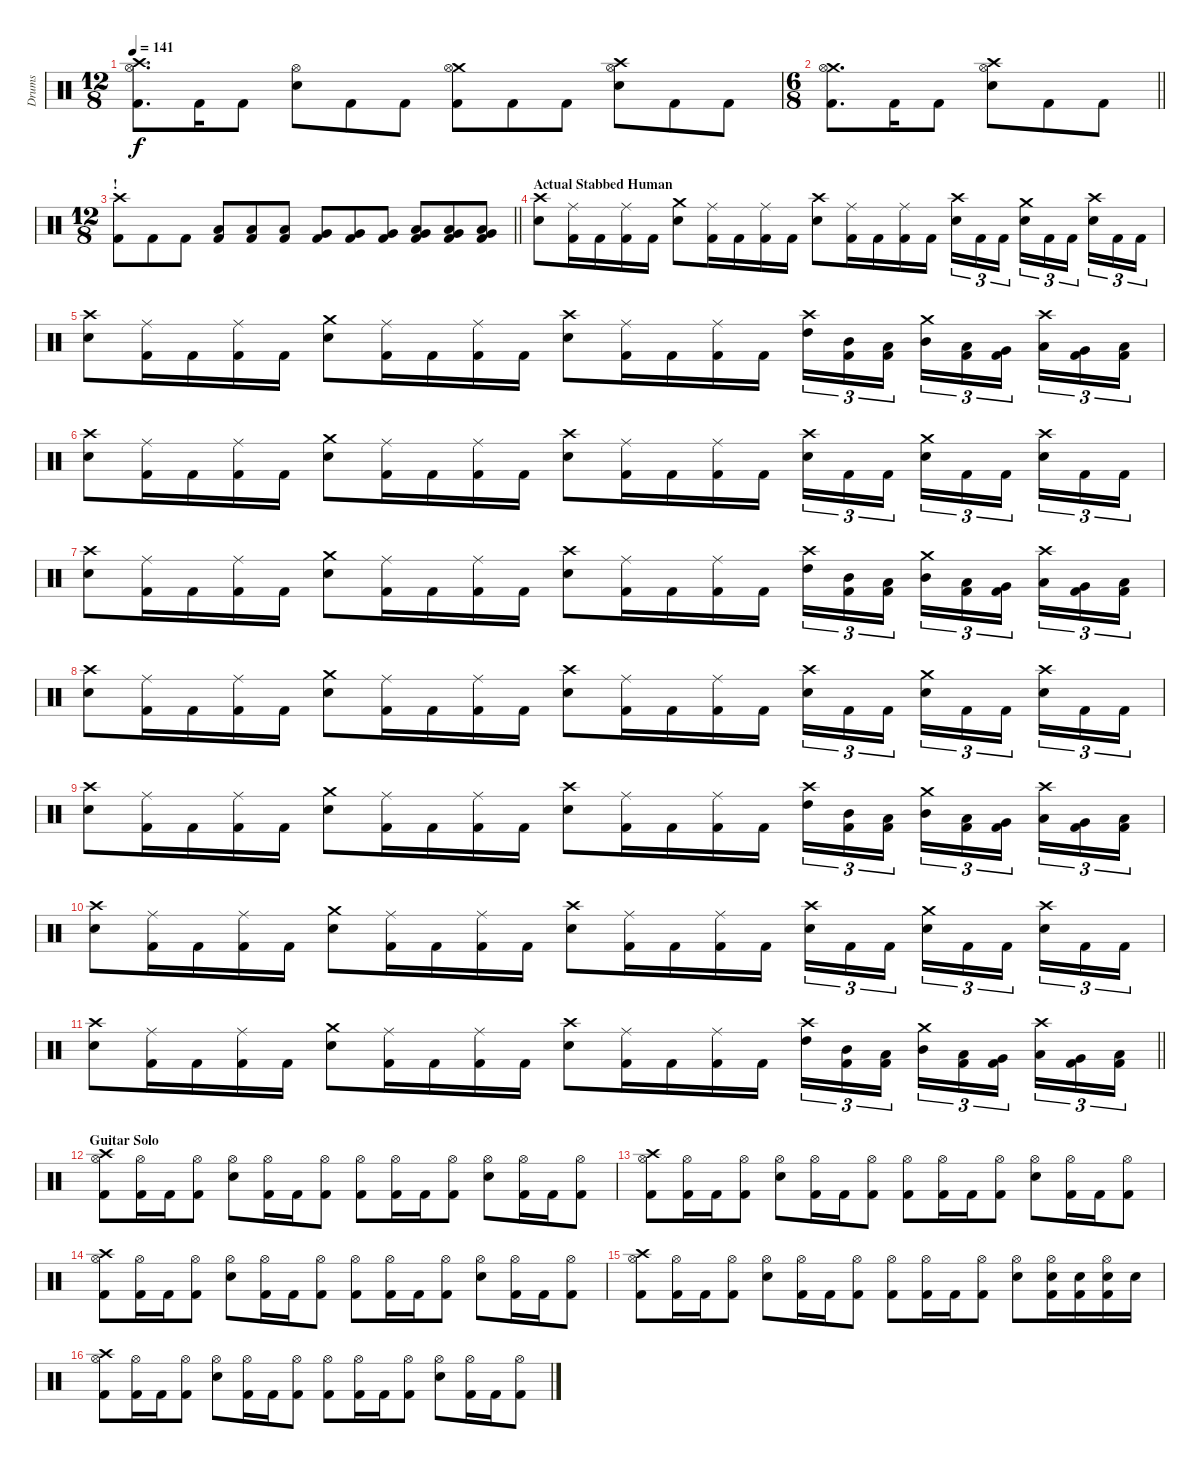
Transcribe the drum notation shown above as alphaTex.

\track ("Drums" "Drums") {instrument percussion}
\staff {score}
\articulation defaults
\ts (12 8)
\tempo 141
\clef neutral
\ks c
("Crash high (hit)" "Hi-Hat (open)" "Kick (hit) 2").8{d dy f} "Kick (hit) 2".16 "Kick (hit) 2".8 ("Hi-Hat (open)" "Snare (hit) 2").8 "Kick (hit) 2".8 "Kick (hit) 2".8 ("Crash medium (hit)" "Hi-Hat (open)" "Kick (hit) 2").8 "Kick (hit) 2".8 "Kick (hit) 2".8 ("Crash high (hit)" "Hi-Hat (open)" "Snare (hit) 2").8 "Kick (hit) 2".8 "Kick (hit) 2".8 |
\ts (6 8)
\barLineRight lightlight
("Crash medium (hit)" "Hi-Hat (open)" "Kick (hit) 2").8{d} "Kick (hit) 2".16 "Kick (hit) 2".8 ("Crash high (hit)" "Hi-Hat (open)" "Snare (hit) 2").8 "Kick (hit) 2".8 "Kick (hit) 2".8 |
\ts (12 8)
\section ("" "!")
\barLineRight lightlight
("Crash high (hit)" "Kick (hit) 2").8 "Kick (hit) 2".8 "Kick (hit) 2".8 ("Low Floor Tom (hit)" "Kick (hit) 2").8 ("Low Floor Tom (hit)" "Kick (hit) 2").8 ("Low Floor Tom (hit)" "Kick (hit) 2").8 ("Very Low Tom (hit)" "Kick (hit) 2").8 ("Very Low Tom (hit)" "Kick (hit) 2").8 ("Very Low Tom (hit)" "Kick (hit) 2").8 ("Low Tom (hit)" "Very Low Tom (hit)" "Kick (hit) 2").8 ("Low Tom (hit)" "Very Low Tom (hit)" "Kick (hit) 2").8 ("Low Tom (hit)" "Very Low Tom (hit)" "Kick (hit) 2").8 |
\section ("" "Actual Stabbed Human")
("Crash high (hit)" "Snare (hit) 2").8 ("Ride (middle)" "Kick (hit) 2").16 "Kick (hit) 2".16 ("Ride (middle)" "Kick (hit) 2").16 "Kick (hit) 2".16 ("Crash medium (hit)" "Snare (hit) 2").8 ("Ride (middle)" "Kick (hit) 2").16 "Kick (hit) 2".16 ("Ride (middle)" "Kick (hit) 2").16 "Kick (hit) 2".16 ("Crash high (hit)" "Snare (hit) 2").8 ("Ride (middle)" "Kick (hit) 2").16 "Kick (hit) 2".16 ("Ride (middle)" "Kick (hit) 2").16 "Kick (hit) 2".16 ("Crash high (hit)" "Snare (hit) 2").16{tu (3 2)} "Kick (hit) 2".16{tu (3 2)} "Kick (hit) 2".16{tu (3 2) beam splitsecondary} ("Crash medium (hit)" "Snare (hit) 2").16{tu (3 2)} "Kick (hit) 2".16{tu (3 2)} "Kick (hit) 2".16{tu (3 2) beam splitsecondary} ("Crash high (hit)" "Snare (hit) 2").16{tu (3 2)} "Kick (hit) 2".16{tu (3 2)} "Kick (hit) 2".16{tu (3 2)} |
("Crash high (hit)" "Snare (hit) 2").8 ("Ride (middle)" "Kick (hit) 2").16 "Kick (hit) 2".16 ("Ride (middle)" "Kick (hit) 2").16 "Kick (hit) 2".16 ("Crash medium (hit)" "Snare (hit) 2").8 ("Ride (middle)" "Kick (hit) 2").16 "Kick (hit) 2".16 ("Ride (middle)" "Kick (hit) 2").16 "Kick (hit) 2".16 ("Crash high (hit)" "Snare (hit) 2").8 ("Ride (middle)" "Kick (hit) 2").16 "Kick (hit) 2".16 ("Ride (middle)" "Kick (hit) 2").16 "Kick (hit) 2".16 ("Crash high (hit)" "High Tom (hit)").16{tu (3 2)} ("Mid Tom (hit)" "Kick (hit) 2").16{tu (3 2)} ("Low Tom (hit)" "Kick (hit) 2").16{tu (3 2) beam splitsecondary} ("Crash medium (hit)" "Mid Tom (hit)").16{tu (3 2)} ("Low Tom (hit)" "Kick (hit) 2").16{tu (3 2)} ("Very Low Tom (hit)" "Kick (hit) 2").16{tu (3 2) beam splitsecondary} ("Crash high (hit)" "Low Tom (hit)").16{tu (3 2)} ("Very Low Tom (hit)" "Kick (hit) 2").16{tu (3 2)} ("Low Floor Tom (hit)" "Kick (hit) 2").16{tu (3 2)} |
("Crash high (hit)" "Snare (hit) 2").8 ("Ride (middle)" "Kick (hit) 2").16 "Kick (hit) 2".16 ("Ride (middle)" "Kick (hit) 2").16 "Kick (hit) 2".16 ("Crash medium (hit)" "Snare (hit) 2").8 ("Ride (middle)" "Kick (hit) 2").16 "Kick (hit) 2".16 ("Ride (middle)" "Kick (hit) 2").16 "Kick (hit) 2".16 ("Crash high (hit)" "Snare (hit) 2").8 ("Ride (middle)" "Kick (hit) 2").16 "Kick (hit) 2".16 ("Ride (middle)" "Kick (hit) 2").16 "Kick (hit) 2".16 ("Crash high (hit)" "Snare (hit) 2").16{tu (3 2)} "Kick (hit) 2".16{tu (3 2)} "Kick (hit) 2".16{tu (3 2) beam splitsecondary} ("Crash medium (hit)" "Snare (hit) 2").16{tu (3 2)} "Kick (hit) 2".16{tu (3 2)} "Kick (hit) 2".16{tu (3 2) beam splitsecondary} ("Crash high (hit)" "Snare (hit) 2").16{tu (3 2)} "Kick (hit) 2".16{tu (3 2)} "Kick (hit) 2".16{tu (3 2)} |
("Crash high (hit)" "Snare (hit) 2").8 ("Ride (middle)" "Kick (hit) 2").16 "Kick (hit) 2".16 ("Ride (middle)" "Kick (hit) 2").16 "Kick (hit) 2".16 ("Crash medium (hit)" "Snare (hit) 2").8 ("Ride (middle)" "Kick (hit) 2").16 "Kick (hit) 2".16 ("Ride (middle)" "Kick (hit) 2").16 "Kick (hit) 2".16 ("Crash high (hit)" "Snare (hit) 2").8 ("Ride (middle)" "Kick (hit) 2").16 "Kick (hit) 2".16 ("Ride (middle)" "Kick (hit) 2").16 "Kick (hit) 2".16 ("Crash high (hit)" "High Tom (hit)").16{tu (3 2)} ("Mid Tom (hit)" "Kick (hit) 2").16{tu (3 2)} ("Low Tom (hit)" "Kick (hit) 2").16{tu (3 2) beam splitsecondary} ("Crash medium (hit)" "Mid Tom (hit)").16{tu (3 2)} ("Low Tom (hit)" "Kick (hit) 2").16{tu (3 2)} ("Very Low Tom (hit)" "Kick (hit) 2").16{tu (3 2) beam splitsecondary} ("Crash high (hit)" "Low Tom (hit)").16{tu (3 2)} ("Very Low Tom (hit)" "Kick (hit) 2").16{tu (3 2)} ("Low Floor Tom (hit)" "Kick (hit) 2").16{tu (3 2)} |
("Crash high (hit)" "Snare (hit) 2").8 ("Ride (middle)" "Kick (hit) 2").16 "Kick (hit) 2".16 ("Ride (middle)" "Kick (hit) 2").16 "Kick (hit) 2".16 ("Crash medium (hit)" "Snare (hit) 2").8 ("Ride (middle)" "Kick (hit) 2").16 "Kick (hit) 2".16 ("Ride (middle)" "Kick (hit) 2").16 "Kick (hit) 2".16 ("Crash high (hit)" "Snare (hit) 2").8 ("Ride (middle)" "Kick (hit) 2").16 "Kick (hit) 2".16 ("Ride (middle)" "Kick (hit) 2").16 "Kick (hit) 2".16 ("Crash high (hit)" "Snare (hit) 2").16{tu (3 2)} "Kick (hit) 2".16{tu (3 2)} "Kick (hit) 2".16{tu (3 2) beam splitsecondary} ("Crash medium (hit)" "Snare (hit) 2").16{tu (3 2)} "Kick (hit) 2".16{tu (3 2)} "Kick (hit) 2".16{tu (3 2) beam splitsecondary} ("Crash high (hit)" "Snare (hit) 2").16{tu (3 2)} "Kick (hit) 2".16{tu (3 2)} "Kick (hit) 2".16{tu (3 2)} |
("Crash high (hit)" "Snare (hit) 2").8 ("Ride (middle)" "Kick (hit) 2").16 "Kick (hit) 2".16 ("Ride (middle)" "Kick (hit) 2").16 "Kick (hit) 2".16 ("Crash medium (hit)" "Snare (hit) 2").8 ("Ride (middle)" "Kick (hit) 2").16 "Kick (hit) 2".16 ("Ride (middle)" "Kick (hit) 2").16 "Kick (hit) 2".16 ("Crash high (hit)" "Snare (hit) 2").8 ("Ride (middle)" "Kick (hit) 2").16 "Kick (hit) 2".16 ("Ride (middle)" "Kick (hit) 2").16 "Kick (hit) 2".16 ("Crash high (hit)" "High Tom (hit)").16{tu (3 2)} ("Mid Tom (hit)" "Kick (hit) 2").16{tu (3 2)} ("Low Tom (hit)" "Kick (hit) 2").16{tu (3 2) beam splitsecondary} ("Crash medium (hit)" "Mid Tom (hit)").16{tu (3 2)} ("Low Tom (hit)" "Kick (hit) 2").16{tu (3 2)} ("Very Low Tom (hit)" "Kick (hit) 2").16{tu (3 2) beam splitsecondary} ("Crash high (hit)" "Low Tom (hit)").16{tu (3 2)} ("Very Low Tom (hit)" "Kick (hit) 2").16{tu (3 2)} ("Low Floor Tom (hit)" "Kick (hit) 2").16{tu (3 2)} |
("Crash high (hit)" "Snare (hit) 2").8 ("Ride (middle)" "Kick (hit) 2").16 "Kick (hit) 2".16 ("Ride (middle)" "Kick (hit) 2").16 "Kick (hit) 2".16 ("Crash medium (hit)" "Snare (hit) 2").8 ("Ride (middle)" "Kick (hit) 2").16 "Kick (hit) 2".16 ("Ride (middle)" "Kick (hit) 2").16 "Kick (hit) 2".16 ("Crash high (hit)" "Snare (hit) 2").8 ("Ride (middle)" "Kick (hit) 2").16 "Kick (hit) 2".16 ("Ride (middle)" "Kick (hit) 2").16 "Kick (hit) 2".16 ("Crash high (hit)" "Snare (hit) 2").16{tu (3 2)} "Kick (hit) 2".16{tu (3 2)} "Kick (hit) 2".16{tu (3 2) beam splitsecondary} ("Crash medium (hit)" "Snare (hit) 2").16{tu (3 2)} "Kick (hit) 2".16{tu (3 2)} "Kick (hit) 2".16{tu (3 2) beam splitsecondary} ("Crash high (hit)" "Snare (hit) 2").16{tu (3 2)} "Kick (hit) 2".16{tu (3 2)} "Kick (hit) 2".16{tu (3 2)} |
\barLineRight lightlight
("Crash high (hit)" "Snare (hit) 2").8 ("Ride (middle)" "Kick (hit) 2").16 "Kick (hit) 2".16 ("Ride (middle)" "Kick (hit) 2").16 "Kick (hit) 2".16 ("Crash medium (hit)" "Snare (hit) 2").8 ("Ride (middle)" "Kick (hit) 2").16 "Kick (hit) 2".16 ("Ride (middle)" "Kick (hit) 2").16 "Kick (hit) 2".16 ("Crash high (hit)" "Snare (hit) 2").8 ("Ride (middle)" "Kick (hit) 2").16 "Kick (hit) 2".16 ("Ride (middle)" "Kick (hit) 2").16 "Kick (hit) 2".16 ("Crash high (hit)" "High Tom (hit)").16{tu (3 2)} ("Mid Tom (hit)" "Kick (hit) 2").16{tu (3 2)} ("Low Tom (hit)" "Kick (hit) 2").16{tu (3 2) beam splitsecondary} ("Crash medium (hit)" "Mid Tom (hit)").16{tu (3 2)} ("Low Tom (hit)" "Kick (hit) 2").16{tu (3 2)} ("Very Low Tom (hit)" "Kick (hit) 2").16{tu (3 2) beam splitsecondary} ("Crash high (hit)" "Low Tom (hit)").16{tu (3 2)} ("Very Low Tom (hit)" "Kick (hit) 2").16{tu (3 2)} ("Low Floor Tom (hit)" "Kick (hit) 2").16{tu (3 2)} |
\section ("" "Guitar Solo ")
("Crash high (hit)" "Hi-Hat (open)" "Kick (hit) 2").8 ("Hi-Hat (open)" "Kick (hit) 2").16 "Kick (hit) 2".16 ("Hi-Hat (open)" "Kick (hit) 2").8 ("Hi-Hat (open)" "Snare (hit) 2").8 ("Hi-Hat (open)" "Kick (hit) 2").16 "Kick (hit) 2".16 ("Hi-Hat (open)" "Kick (hit) 2").8 ("Hi-Hat (open)" "Kick (hit) 2").8 ("Hi-Hat (open)" "Kick (hit) 2").16 "Kick (hit) 2".16 ("Hi-Hat (open)" "Kick (hit) 2").8 ("Hi-Hat (open)" "Snare (hit) 2").8 ("Hi-Hat (open)" "Kick (hit) 2").16 "Kick (hit) 2".16 ("Hi-Hat (open)" "Kick (hit) 2").8 |
("Crash high (hit)" "Hi-Hat (open)" "Kick (hit) 2").8 ("Hi-Hat (open)" "Kick (hit) 2").16 "Kick (hit) 2".16 ("Hi-Hat (open)" "Kick (hit) 2").8 ("Hi-Hat (open)" "Snare (hit) 2").8 ("Hi-Hat (open)" "Kick (hit) 2").16 "Kick (hit) 2".16 ("Hi-Hat (open)" "Kick (hit) 2").8 ("Hi-Hat (open)" "Kick (hit) 2").8 ("Hi-Hat (open)" "Kick (hit) 2").16 "Kick (hit) 2".16 ("Hi-Hat (open)" "Kick (hit) 2").8 ("Hi-Hat (open)" "Snare (hit) 2").8 ("Hi-Hat (open)" "Kick (hit) 2").16 "Kick (hit) 2".16 ("Hi-Hat (open)" "Kick (hit) 2").8 |
("Crash high (hit)" "Hi-Hat (open)" "Kick (hit) 2").8 ("Hi-Hat (open)" "Kick (hit) 2").16 "Kick (hit) 2".16 ("Hi-Hat (open)" "Kick (hit) 2").8 ("Hi-Hat (open)" "Snare (hit) 2").8 ("Hi-Hat (open)" "Kick (hit) 2").16 "Kick (hit) 2".16 ("Hi-Hat (open)" "Kick (hit) 2").8 ("Hi-Hat (open)" "Kick (hit) 2").8 ("Hi-Hat (open)" "Kick (hit) 2").16 "Kick (hit) 2".16 ("Hi-Hat (open)" "Kick (hit) 2").8 ("Hi-Hat (open)" "Snare (hit) 2").8 ("Hi-Hat (open)" "Kick (hit) 2").16 "Kick (hit) 2".16 ("Hi-Hat (open)" "Kick (hit) 2").8 |
("Crash high (hit)" "Hi-Hat (open)" "Kick (hit) 2").8 ("Hi-Hat (open)" "Kick (hit) 2").16 "Kick (hit) 2".16 ("Hi-Hat (open)" "Kick (hit) 2").8 ("Hi-Hat (open)" "Snare (hit) 2").8 ("Hi-Hat (open)" "Kick (hit) 2").16 "Kick (hit) 2".16 ("Hi-Hat (open)" "Kick (hit) 2").8 ("Hi-Hat (open)" "Kick (hit) 2").8 ("Hi-Hat (open)" "Kick (hit) 2").16 "Kick (hit) 2".16 ("Hi-Hat (open)" "Kick (hit) 2").8 ("Hi-Hat (open)" "Snare (hit) 2").8 ("Hi-Hat (open)" "Snare (hit) 2" "Kick (hit) 2").16 ("Snare (hit) 2" "Kick (hit) 2").16 ("Hi-Hat (open)" "Snare (hit) 2" "Kick (hit) 2").16 "Snare (hit) 2".16 |
("Crash high (hit)" "Hi-Hat (open)" "Kick (hit) 2").8 ("Hi-Hat (open)" "Kick (hit) 2").16 "Kick (hit) 2".16 ("Hi-Hat (open)" "Kick (hit) 2").8 ("Hi-Hat (open)" "Snare (hit) 2").8 ("Hi-Hat (open)" "Kick (hit) 2").16 "Kick (hit) 2".16 ("Hi-Hat (open)" "Kick (hit) 2").8 ("Hi-Hat (open)" "Kick (hit) 2").8 ("Hi-Hat (open)" "Kick (hit) 2").16 "Kick (hit) 2".16 ("Hi-Hat (open)" "Kick (hit) 2").8 ("Hi-Hat (open)" "Snare (hit) 2").8 ("Hi-Hat (open)" "Kick (hit) 2").16 "Kick (hit) 2".16 ("Hi-Hat (open)" "Kick (hit) 2").8
